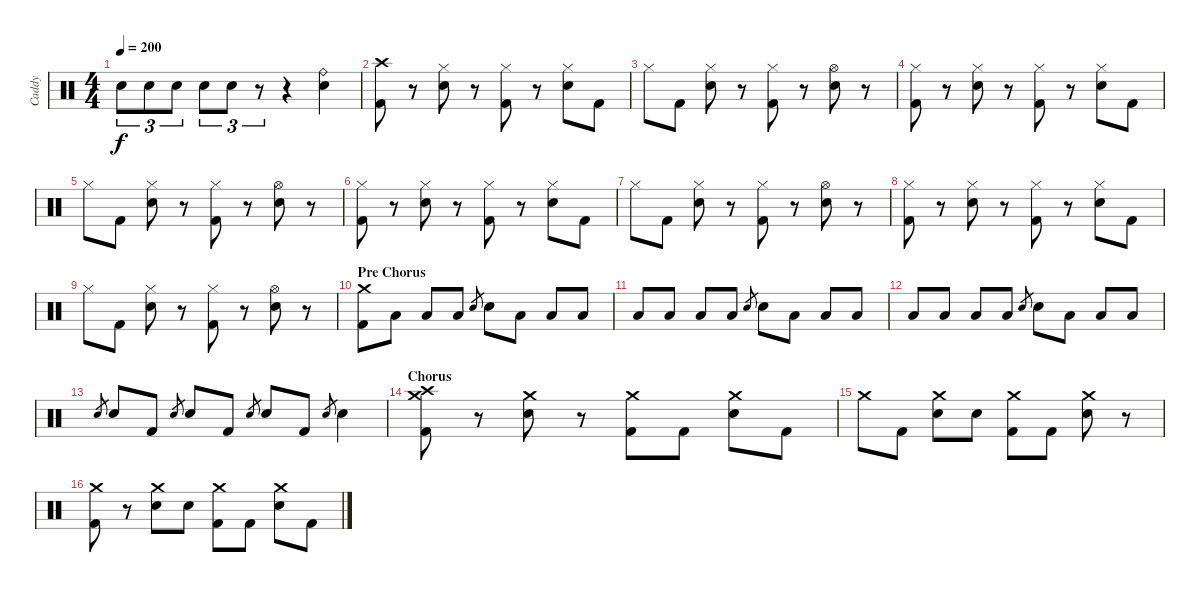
\track ("Caddy" "Caddy") {instrument percussion}
\staff {score}
\articulation defaults
\ts (4 4)
\tempo 200
\clef neutral
\ks c "Electric Snare (hit)".8{tu (3 2) dy f} "Electric Snare (hit)".8{tu (3 2)} "Electric Snare (hit)".8{tu (3 2)} "Electric Snare (hit)".8{tu (3 2)} "Electric Snare (hit)".8{tu (3 2)}
r.8{tu (3 2)} r.4 ("Ride (bell)" "Electric Snare (hit)").4 |
("Crash high (hit)" "Kick (hit) 2").8 r.8 ("Hi-Hat (closed)" "Electric Snare (hit)").8 r.8 ("Hi-Hat (closed)" "Kick (hit) 2").8 r.8 ("Hi-Hat (closed)" "Electric Snare (hit)").8 "Kick (hit) 2".8 |
"Hi-Hat (closed)".8 "Kick (hit) 2".8 ("Hi-Hat (closed)" "Electric Snare (hit)").8 r.8 ("Hi-Hat (closed)" "Kick (hit) 2").8 r.8 ("Hi-Hat (open)" "Electric Snare (hit)").8 r.8 |
("Hi-Hat (closed)" "Kick (hit) 2").8 r.8 ("Hi-Hat (closed)" "Electric Snare (hit)").8 r.8 ("Hi-Hat (closed)" "Kick (hit) 2").8 r.8 ("Hi-Hat (closed)" "Electric Snare (hit)").8 "Kick (hit) 2".8 |
"Hi-Hat (closed)".8 "Kick (hit) 2".8 ("Hi-Hat (closed)" "Electric Snare (hit)").8 r.8 ("Hi-Hat (closed)" "Kick (hit) 2").8 r.8 ("Hi-Hat (open)" "Electric Snare (hit)").8 r.8 |
("Hi-Hat (closed)" "Kick (hit) 2").8 r.8 ("Hi-Hat (closed)" "Electric Snare (hit)").8 r.8 ("Hi-Hat (closed)" "Kick (hit) 2").8 r.8 ("Hi-Hat (closed)" "Electric Snare (hit)").8 "Kick (hit) 2".8 |
"Hi-Hat (closed)".8 "Kick (hit) 2".8 ("Hi-Hat (closed)" "Electric Snare (hit)").8 r.8 ("Hi-Hat (closed)" "Kick (hit) 2").8 r.8 ("Hi-Hat (open)" "Electric Snare (hit)").8 r.8 |
("Hi-Hat (closed)" "Kick (hit) 2").8 r.8 ("Hi-Hat (closed)" "Electric Snare (hit)").8 r.8 ("Hi-Hat (closed)" "Kick (hit) 2").8 r.8 ("Hi-Hat (closed)" "Electric Snare (hit)").8 "Kick (hit) 2".8 |
"Hi-Hat (closed)".8 "Kick (hit) 2".8 ("Hi-Hat (closed)" "Electric Snare (hit)").8 r.8 ("Hi-Hat (closed)" "Kick (hit) 2").8 r.8 ("Hi-Hat (open)" "Electric Snare (hit)").8 r.8 |
\section ("" "Pre Chorus")
("Crash medium (hit)" "Kick (hit) 2").8 "Low Floor Tom (hit)".8 "Low Tom (hit)".8 "Low Floor Tom (hit)".8 "Electric Snare (hit)".8{gr} "Electric Snare (hit)".8 "Low Floor Tom (hit)".8 "Low Tom (hit)".8 "Low Floor Tom (hit)".8 |
"Low Tom (hit)".8 "Low Floor Tom (hit)".8 "Low Tom (hit)".8 "Low Floor Tom (hit)".8 "Electric Snare (hit)".8{gr} "Electric Snare (hit)".8 "Low Tom (hit)".8 "Low Floor Tom (hit)".8 "Low Tom (hit)".8 |
"Low Tom (hit)".8 "Low Floor Tom (hit)".8 "Low Tom (hit)".8 "Low Floor Tom (hit)".8 "Electric Snare (hit)".8{gr} "Electric Snare (hit)".8 "Low Tom (hit)".8 "Low Floor Tom (hit)".8 "Low Tom (hit)".8 |
"Electric Snare (hit)".8{gr} "Electric Snare (hit)".8 "Kick (hit) 2".8 "Electric Snare (hit)".8{gr} "Electric Snare (hit)".8 "Kick (hit) 2".8 "Electric Snare (hit)".8{gr} "Electric Snare (hit)".8 "Kick (hit) 2".8 "Electric Snare (hit)".8{gr} "Electric Snare (hit)".4 |
\section ("" "Chorus")
("Crash high (hit)" "Crash medium (hit)" "Kick (hit) 2").8 r.8 ("Crash medium (hit)" "Electric Snare (hit)").8 r.8 ("Crash medium (hit)" "Kick (hit) 2").8 "Kick (hit) 2".8 ("Crash medium (hit)" "Electric Snare (hit)").8 "Kick (hit) 2".8 |
"Crash medium (hit)".8 "Kick (hit) 2".8 ("Crash medium (hit)" "Electric Snare (hit)").8 "Electric Snare (hit)".8 ("Crash medium (hit)" "Kick (hit) 2").8 "Kick (hit) 2".8 ("Crash medium (hit)" "Electric Snare (hit)").8 r.8 |
("Crash medium (hit)" "Kick (hit) 2").8 r.8 ("Crash medium (hit)" "Electric Snare (hit)").8 "Electric Snare (hit)".8 ("Crash medium (hit)" "Kick (hit) 2").8 "Kick (hit) 2".8 ("Crash medium (hit)" "Electric Snare (hit)").8 "Kick (hit) 2".8
